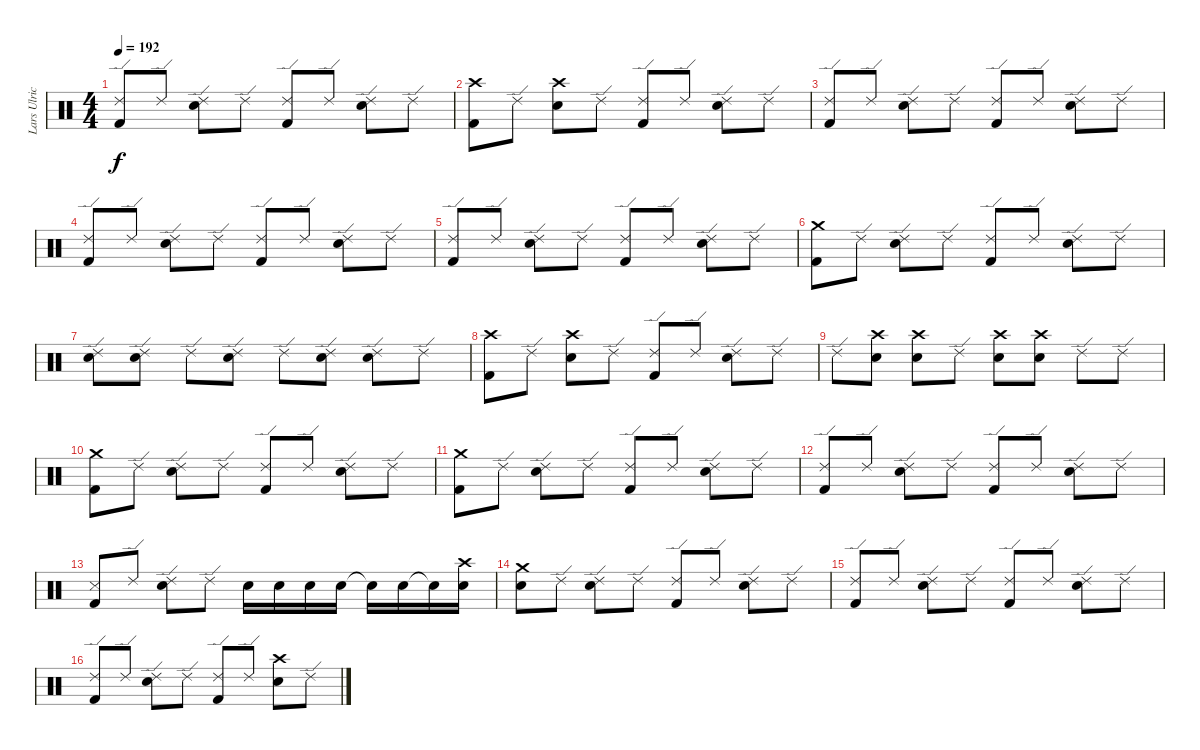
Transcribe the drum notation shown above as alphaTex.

\track ("Lars Ulrich" "Lars Ulric") {instrument percussion}
\staff {score}
\articulation defaults
\ts (4 4)
\tempo 192
\clef neutral
\ks c
("Ride (edge) 2" "Kick (hit) 2").8{dy f} "Ride (edge) 2".8 ("Ride (edge) 2" "Snare (hit) 2").8 "Ride (edge) 2".8 ("Ride (edge) 2" "Kick (hit) 2").8 "Ride (edge) 2".8 ("Ride (edge) 2" "Snare (hit) 2").8 "Ride (edge) 2".8 |
("Crash high (hit)" "Kick (hit) 2").8 "Ride (edge) 2".8 ("Crash high (hit)" "Snare (hit) 2").8 "Ride (edge) 2".8 ("Ride (edge) 2" "Kick (hit) 2").8 "Ride (edge) 2".8 ("Ride (edge) 2" "Snare (hit) 2").8 "Ride (edge) 2".8 |
("Ride (edge) 2" "Kick (hit) 2").8 "Ride (edge) 2".8 ("Ride (edge) 2" "Snare (hit) 2").8 "Ride (edge) 2".8 ("Ride (edge) 2" "Kick (hit) 2").8 "Ride (edge) 2".8 ("Ride (edge) 2" "Snare (hit) 2").8 "Ride (edge) 2".8 |
("Ride (edge) 2" "Kick (hit) 2").8 "Ride (edge) 2".8 ("Ride (edge) 2" "Snare (hit) 2").8 "Ride (edge) 2".8 ("Ride (edge) 2" "Kick (hit) 2").8 "Ride (edge) 2".8 ("Ride (edge) 2" "Snare (hit) 2").8 "Ride (edge) 2".8 |
("Ride (edge) 2" "Kick (hit) 2").8 "Ride (edge) 2".8 ("Ride (edge) 2" "Snare (hit) 2").8 "Ride (edge) 2".8 ("Ride (edge) 2" "Kick (hit) 2").8 "Ride (edge) 2".8 ("Ride (edge) 2" "Snare (hit) 2").8 "Ride (edge) 2".8 |
("Crash medium (hit)" "Kick (hit) 2").8 "Ride (edge) 2".8 ("Ride (edge) 2" "Snare (hit) 2").8 "Ride (edge) 2".8 ("Ride (edge) 2" "Kick (hit) 2").8 "Ride (edge) 2".8 ("Ride (edge) 2" "Snare (hit) 2").8 "Ride (edge) 2".8 |
("Ride (edge) 2" "Snare (hit) 2").8 ("Ride (edge) 2" "Snare (hit) 2").8 "Ride (edge) 2".8 ("Ride (edge) 2" "Snare (hit) 2").8 "Ride (edge) 2".8 ("Ride (edge) 2" "Snare (hit) 2").8 ("Ride (edge) 2" "Snare (hit) 2").8 "Ride (edge) 2".8 |
("Crash high (hit)" "Kick (hit) 2").8 "Ride (edge) 2".8 ("Crash high (hit)" "Snare (hit) 2").8 "Ride (edge) 2".8 ("Ride (edge) 2" "Kick (hit) 2").8 "Ride (edge) 2".8 ("Ride (edge) 2" "Snare (hit) 2").8 "Ride (edge) 2".8 |
"Ride (edge) 2".8 ("Crash high (hit)" "Snare (hit) 2").8 ("Crash high (hit)" "Snare (hit) 2").8 "Ride (edge) 2".8 ("Crash high (hit)" "Snare (hit) 2").8 ("Crash high (hit)" "Snare (hit) 2").8 "Ride (edge) 2".8 "Ride (edge) 2".8 |
("Crash medium (hit)" "Kick (hit) 2").8 "Ride (edge) 2".8 ("Ride (edge) 2" "Snare (hit) 2").8 "Ride (edge) 2".8 ("Ride (edge) 2" "Kick (hit) 2").8 "Ride (edge) 2".8 ("Ride (edge) 2" "Snare (hit) 2").8 "Ride (edge) 2".8 |
("Crash medium (hit)" "Kick (hit) 2").8 "Ride (edge) 2".8 ("Ride (edge) 2" "Snare (hit) 2").8 "Ride (edge) 2".8 ("Ride (edge) 2" "Kick (hit) 2").8 "Ride (edge) 2".8 ("Ride (edge) 2" "Snare (hit) 2").8 "Ride (edge) 2".8 |
("Ride (edge) 2" "Kick (hit) 2").8 "Ride (edge) 2".8 ("Ride (edge) 2" "Snare (hit) 2").8 "Ride (edge) 2".8 ("Ride (edge) 2" "Kick (hit) 2").8 "Ride (edge) 2".8 ("Ride (edge) 2" "Snare (hit) 2").8 "Ride (edge) 2".8 |
("Snare (side stick) 3" "Kick (hit) 2").8 "Ride (edge) 2".8 ("Ride (edge) 2" "Snare (hit) 2").8 "Ride (edge) 2".8 "Snare (hit) 2".16 "Snare (hit) 2".16 "Snare (hit) 2".16 "Snare (hit) 2".16 "Snare (hit)"{t}.16 "Snare (hit) 2".16 "Snare (hit) 2"{t}.16 ("Crash high (hit)" "Snare (hit) 2").16 |
("Crash medium (hit)" "Snare (hit) 2").8 "Ride (edge) 2".8 ("Ride (edge) 2" "Snare (hit) 2").8 "Ride (edge) 2".8 ("Ride (edge) 2" "Kick (hit) 2").8 "Ride (edge) 2".8 ("Ride (edge) 2" "Snare (hit) 2").8 "Ride (edge) 2".8 |
("Ride (edge) 2" "Kick (hit) 2").8 "Ride (edge) 2".8 ("Ride (edge) 2" "Snare (hit) 2").8 "Ride (edge) 2".8 ("Ride (edge) 2" "Kick (hit) 2").8 "Ride (edge) 2".8 ("Ride (edge) 2" "Snare (hit) 2").8 "Ride (edge) 2".8 |
("Ride (edge) 2" "Kick (hit) 2").8 "Ride (edge) 2".8 ("Ride (edge) 2" "Snare (hit) 2").8 "Ride (edge) 2".8 ("Ride (edge) 2" "Kick (hit) 2").8 "Ride (edge) 2".8 ("Crash high (hit)" "Snare (hit) 2").8 "Ride (edge) 2".8
